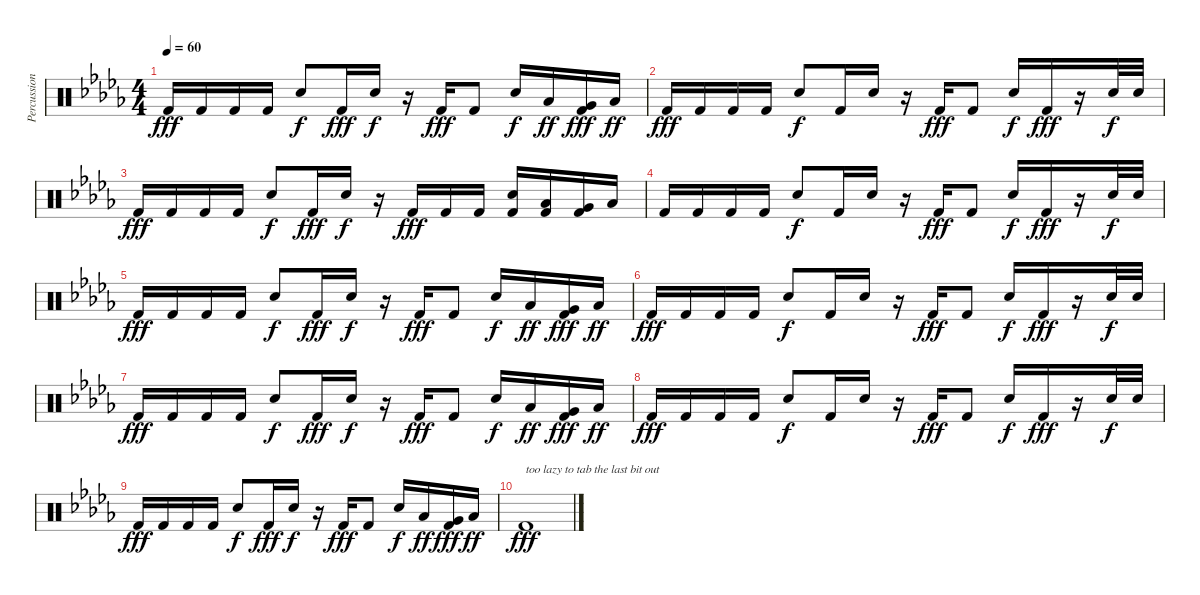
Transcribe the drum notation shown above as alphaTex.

\track ("Percussion" "Percussion") {instrument percussion}
\staff {score}
\articulation defaults
\ts (4 4)
\tempo 60
\clef neutral
\ks bbminor "Kick (hit) 2".16{dy fff} "Kick (hit) 2".16 "Kick (hit) 2".16 "Kick (hit) 2".16 "Electric Snare (hit)".8{dy f} "Kick (hit) 2".16{dy fff} "Electric Snare (hit)".16{dy f}
r.16 "Kick (hit) 2".16{dy fff} "Kick (hit) 2".8 "Electric Snare (hit)".16{dy f} "Low Tom (hit)".16{dy ff} ("Very Low Tom (hit)" "Kick (hit) 2").16{dy fff} "Low Floor Tom (hit)".16{dy ff} |
"Kick (hit) 2".16{dy fff} "Kick (hit) 2".16 "Kick (hit) 2".16 "Kick (hit) 2".16 "Electric Snare (hit)".8{dy f} "Kick (hit) 2".16 "Electric Snare (hit)".16 r.16 "Kick (hit) 2".16{dy fff} "Kick (hit) 2".8 "Electric Snare (hit)".16{dy f} "Kick (hit) 2".16{dy fff} r.16 "Electric Snare (hit)".32{dy f} "Electric Snare (hit)".32 |
"Kick (hit) 2".16{dy fff} "Kick (hit) 2".16 "Kick (hit) 2".16 "Kick (hit) 2".16 "Electric Snare (hit)".8{dy f} "Kick (hit) 2".16{dy fff} "Electric Snare (hit)".16{dy f} r.16 "Kick (hit) 2".16{dy fff} "Kick (hit) 2".16 "Kick (hit) 2".16 ("Electric Snare (hit)" "Kick (hit) 2").16 ("Low Tom (hit)" "Kick (hit) 2").16 ("Very Low Tom (hit)" "Kick (hit) 2").16 "Low Floor Tom (hit)".16 |
"Kick (hit) 2".16 "Kick (hit) 2".16 "Kick (hit) 2".16 "Kick (hit) 2".16 "Electric Snare (hit)".8{dy f} "Kick (hit) 2".16 "Electric Snare (hit)".16 r.16 "Kick (hit) 2".16{dy fff} "Kick (hit) 2".8 "Electric Snare (hit)".16{dy f} "Kick (hit) 2".16{dy fff} r.16 "Electric Snare (hit)".32{dy f} "Electric Snare (hit)".32 |
"Kick (hit) 2".16{dy fff} "Kick (hit) 2".16 "Kick (hit) 2".16 "Kick (hit) 2".16 "Electric Snare (hit)".8{dy f} "Kick (hit) 2".16{dy fff} "Electric Snare (hit)".16{dy f} r.16 "Kick (hit) 2".16{dy fff} "Kick (hit) 2".8 "Electric Snare (hit)".16{dy f} "Low Tom (hit)".16{dy ff} ("Very Low Tom (hit)" "Kick (hit) 2").16{dy fff} "Low Floor Tom (hit)".16{dy ff} |
"Kick (hit) 2".16{dy fff} "Kick (hit) 2".16 "Kick (hit) 2".16 "Kick (hit) 2".16 "Electric Snare (hit)".8{dy f} "Kick (hit) 2".16 "Electric Snare (hit)".16 r.16 "Kick (hit) 2".16{dy fff} "Kick (hit) 2".8 "Electric Snare (hit)".16{dy f} "Kick (hit) 2".16{dy fff} r.16 "Electric Snare (hit)".32{dy f} "Electric Snare (hit)".32 |
"Kick (hit) 2".16{dy fff} "Kick (hit) 2".16 "Kick (hit) 2".16 "Kick (hit) 2".16 "Electric Snare (hit)".8{dy f} "Kick (hit) 2".16{dy fff} "Electric Snare (hit)".16{dy f} r.16 "Kick (hit) 2".16{dy fff} "Kick (hit) 2".8 "Electric Snare (hit)".16{dy f} "Low Tom (hit)".16{dy ff} ("Very Low Tom (hit)" "Kick (hit) 2").16{dy fff} "Low Floor Tom (hit)".16{dy ff} |
"Kick (hit) 2".16{dy fff} "Kick (hit) 2".16 "Kick (hit) 2".16 "Kick (hit) 2".16 "Electric Snare (hit)".8{dy f} "Kick (hit) 2".16 "Electric Snare (hit)".16 r.16 "Kick (hit) 2".16{dy fff} "Kick (hit) 2".8 "Electric Snare (hit)".16{dy f} "Kick (hit) 2".16{dy fff} r.16 "Electric Snare (hit)".32{dy f} "Electric Snare (hit)".32 |
"Kick (hit) 2".16{dy fff} "Kick (hit) 2".16 "Kick (hit) 2".16 "Kick (hit) 2".16 "Electric Snare (hit)".8{dy f} "Kick (hit) 2".16{dy fff} "Electric Snare (hit)".16{dy f} r.16 "Kick (hit) 2".16{dy fff} "Kick (hit) 2".8 "Electric Snare (hit)".16{dy f} "Low Tom (hit)".16{dy ff} ("Very Low Tom (hit)" "Kick (hit) 2").16{dy fff} "Low Floor Tom (hit)".16{dy ff} |
"Kick (hit) 2".1{txt "too lazy to tab the last bit out" dy fff}
